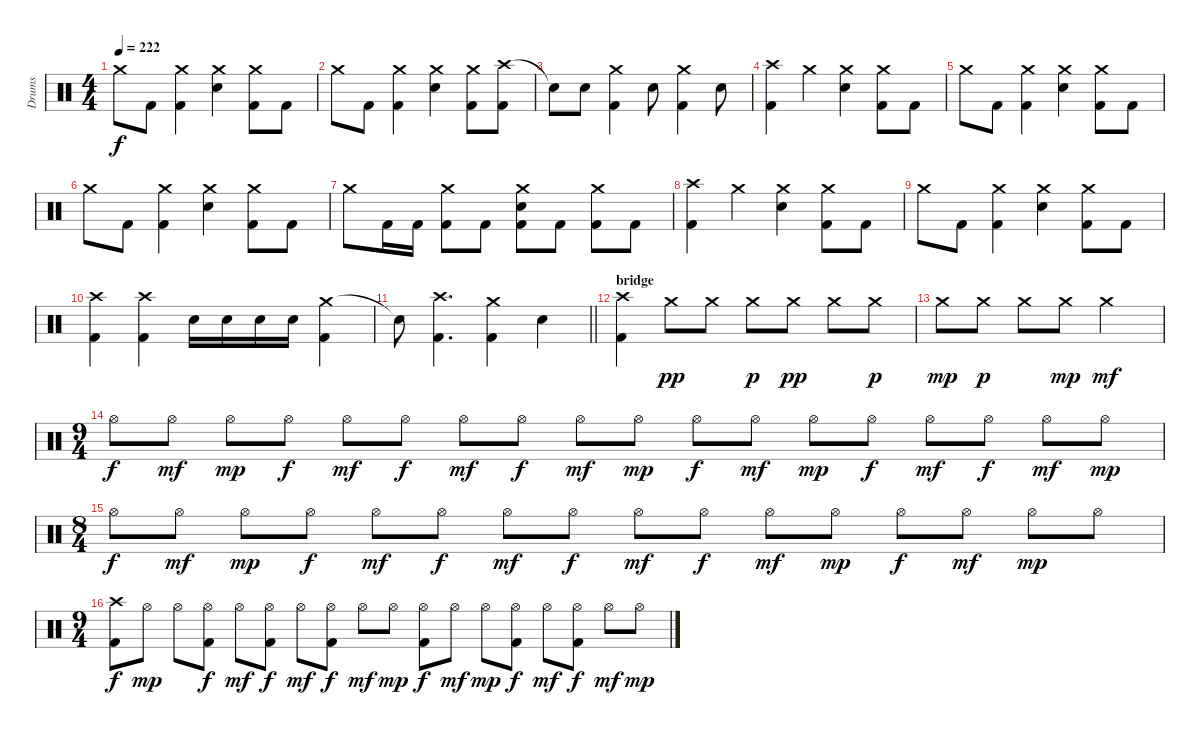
\track ("Drums" "Drums") {instrument percussion}
\staff {score}
\articulation defaults
\ts (4 4)
\tempo 222
\clef neutral
\ks c "Crash medium (hit)".8{dy f} "Kick (hit) 2".8
("Crash medium (hit)" "Kick (hit) 2").4 ("Crash medium (hit)" "Electric Snare (hit)").4 ("Crash medium (hit)" "Kick (hit) 2").8 "Kick (hit) 2".8 |
"Crash medium (hit)".8 "Kick (hit) 2".8 ("Crash medium (hit)" "Kick (hit) 2").4 ("Crash medium (hit)" "Electric Snare (hit)").4 ("Crash medium (hit)" "Kick (hit) 2").8 ("Crash high (hit)" "Kick (hit) 2").8 |
"Snare (hit)"{t}.8 "Electric Snare (hit)".8 ("Crash medium (hit)" "Kick (hit) 2").4 "Electric Snare (hit)".8 ("Crash medium (hit)" "Kick (hit) 2").4 "Electric Snare (hit)".8 |
("Crash high (hit)" "Kick (hit) 2").4 "Crash medium (hit)".4 ("Crash medium (hit)" "Electric Snare (hit)").4 ("Crash medium (hit)" "Kick (hit) 2").8 "Kick (hit) 2".8 |
"Crash medium (hit)".8 "Kick (hit) 2".8 ("Crash medium (hit)" "Kick (hit) 2").4 ("Crash medium (hit)" "Electric Snare (hit)").4 ("Crash medium (hit)" "Kick (hit) 2").8 "Kick (hit) 2".8 |
"Crash medium (hit)".8 "Kick (hit) 2".8 ("Crash medium (hit)" "Kick (hit) 2").4 ("Crash medium (hit)" "Electric Snare (hit)").4 ("Crash medium (hit)" "Kick (hit) 2").8 "Kick (hit) 2".8 |
"Crash medium (hit)".8 "Kick (hit) 2".16 "Kick (hit) 2".16 ("Crash medium (hit)" "Kick (hit) 2").8 "Kick (hit) 2".8 ("Crash medium (hit)" "Electric Snare (hit)" "Kick (hit) 2").8 "Kick (hit) 2".8 ("Crash medium (hit)" "Kick (hit) 2").8 "Kick (hit) 2".8 |
("Crash high (hit)" "Kick (hit) 2").4 "Crash medium (hit)".4 ("Crash medium (hit)" "Electric Snare (hit)").4 ("Crash medium (hit)" "Kick (hit) 2").8 "Kick (hit) 2".8 |
"Crash medium (hit)".8 "Kick (hit) 2".8 ("Crash medium (hit)" "Kick (hit) 2").4 ("Crash medium (hit)" "Electric Snare (hit)").4 ("Crash medium (hit)" "Kick (hit) 2").8 "Kick (hit) 2".8 |
("Crash high (hit)" "Kick (hit) 2").4 ("Crash high (hit)" "Kick (hit) 2").4 "Electric Snare (hit)".16 "Electric Snare (hit)".16 "Electric Snare (hit)".16 "Electric Snare (hit)".16 ("Crash medium (hit)" "Kick (hit) 2").4 |
\barLineRight lightlight "Snare (hit)"{t}.8
("Crash high (hit)" "Kick (hit) 2").4{d} ("Crash medium (hit)" "Kick (hit) 2").4 "Electric Snare (hit)".4 |
\section ("" "bridge")
("Crash high (hit)" "Kick (hit) 2").4 "Crash medium (hit)".8{dy pp} "Crash medium (hit)".8 "Crash medium (hit)".8{dy p} "Crash medium (hit)".8{dy pp} "Crash medium (hit)".8 "Crash medium (hit)".8{dy p} |
"Crash medium (hit)".8{dy mp} "Crash medium (hit)".8{dy p} "Crash medium (hit)".8 "Crash medium (hit)".8{dy mp} "Crash medium (hit)".2{dy mf} |
\ts (9 4)
"Hi-Hat (open)".8{dy f} "Hi-Hat (open)".8{dy mf} "Hi-Hat (open)".8{dy mp} "Hi-Hat (open)".8{dy f} "Hi-Hat (open)".8{dy mf} "Hi-Hat (open)".8{dy f} "Hi-Hat (open)".8{dy mf} "Hi-Hat (open)".8{dy f} "Hi-Hat (open)".8{dy mf} "Hi-Hat (open)".8{dy mp} "Hi-Hat (open)".8{dy f} "Hi-Hat (open)".8{dy mf} "Hi-Hat (open)".8{dy mp} "Hi-Hat (open)".8{dy f} "Hi-Hat (open)".8{dy mf} "Hi-Hat (open)".8{dy f} "Hi-Hat (open)".8{dy mf} "Hi-Hat (open)".8{dy mp} |
\ts (8 4)
"Hi-Hat (open)".8{dy f} "Hi-Hat (open)".8{dy mf} "Hi-Hat (open)".8{dy mp} "Hi-Hat (open)".8{dy f} "Hi-Hat (open)".8{dy mf} "Hi-Hat (open)".8{dy f} "Hi-Hat (open)".8{dy mf} "Hi-Hat (open)".8{dy f} "Hi-Hat (open)".8{dy mf} "Hi-Hat (open)".8{dy f} "Hi-Hat (open)".8{dy mf} "Hi-Hat (open)".8{dy mp} "Hi-Hat (open)".8{dy f} "Hi-Hat (open)".8{dy mf} "Hi-Hat (open)".8{dy mp} "Hi-Hat (open)".8 |
\ts (9 4)
("Crash high (hit)" "Kick (hit) 2").8{dy f} "Hi-Hat (open)".8{dy mp} "Hi-Hat (open)".8 ("Hi-Hat (open)" "Kick (hit) 2").8{dy f} "Hi-Hat (open)".8{dy mf} ("Hi-Hat (open)" "Kick (hit) 2").8{dy f} "Hi-Hat (open)".8{dy mf} ("Hi-Hat (open)" "Kick (hit) 2").8{dy f} "Hi-Hat (open)".8{dy mf} "Hi-Hat (open)".8{dy mp} ("Hi-Hat (open)" "Kick (hit) 2").8{dy f} "Hi-Hat (open)".8{dy mf} "Hi-Hat (open)".8{dy mp} ("Hi-Hat (open)" "Kick (hit) 2").8{dy f} "Hi-Hat (open)".8{dy mf} ("Hi-Hat (open)" "Kick (hit) 2").8{dy f} "Hi-Hat (open)".8{dy mf} "Hi-Hat (open)".8{dy mp}
